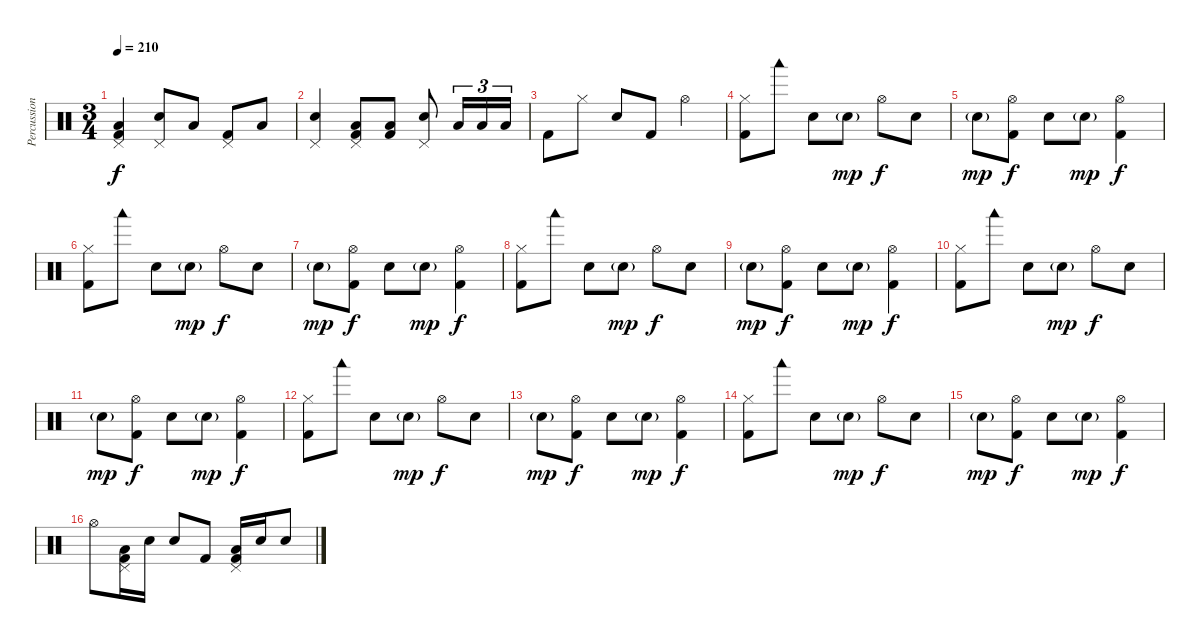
\track ("Percussion" "Percussion") {instrument percussion}
\staff
\articulation defaults
\ts (3 4)
\tempo 210
\clef neutral
\ks c
("Pedal Hi-Hat (hit)" "Low Floor Tom (hit)" "Kick (hit) 2").4{dy f} ("Pedal Hi-Hat (hit)" "Electric Snare (hit)").8 "Low Floor Tom (hit)".8 ("Pedal Hi-Hat (hit)" "Kick (hit) 2").8 "Low Floor Tom (hit)".8 |
("Pedal Hi-Hat (hit)" "Electric Snare (hit)").4 ("Pedal Hi-Hat (hit)" "Low Floor Tom (hit)" "Kick (hit) 2").8 ("Low Floor Tom (hit)" "Kick (hit) 2").8 ("Pedal Hi-Hat (hit)" "Electric Snare (hit)").8 "Low Floor Tom (hit)".16{tu (3 2)} "Low Floor Tom (hit)".16{tu (3 2)} "Low Floor Tom (hit)".16{tu (3 2)} |
"Kick (hit) 2".8 "Hi-Hat (closed)".8 "Electric Snare (hit)".8 "Kick (hit) 2".8 "Hi-Hat (open)".4 |
("Hi-Hat (closed)" "Kick (hit) 2").8 "Woodblock low (hit)".8 "Electric Snare (hit)".8 "Electric Snare (hit)"{g}.8{dy mp} "Hi-Hat (open)".8{dy f} "Electric Snare (hit)".8 |
"Electric Snare (hit)"{g}.8{dy mp} ("Hi-Hat (open)" "Kick (hit) 2").8{dy f} "Electric Snare (hit)".8 "Electric Snare (hit)"{g}.8{dy mp} ("Hi-Hat (open)" "Kick (hit) 2").4{dy f} |
("Hi-Hat (closed)" "Kick (hit) 2").8 "Woodblock low (hit)".8 "Electric Snare (hit)".8 "Electric Snare (hit)"{g}.8{dy mp} "Hi-Hat (open)".8{dy f} "Electric Snare (hit)".8 |
"Electric Snare (hit)"{g}.8{dy mp} ("Hi-Hat (open)" "Kick (hit) 2").8{dy f} "Electric Snare (hit)".8 "Electric Snare (hit)"{g}.8{dy mp} ("Hi-Hat (open)" "Kick (hit) 2").4{dy f} |
("Hi-Hat (closed)" "Kick (hit) 2").8 "Woodblock low (hit)".8 "Electric Snare (hit)".8 "Electric Snare (hit)"{g}.8{dy mp} "Hi-Hat (open)".8{dy f} "Electric Snare (hit)".8 |
"Electric Snare (hit)"{g}.8{dy mp} ("Hi-Hat (open)" "Kick (hit) 2").8{dy f} "Electric Snare (hit)".8 "Electric Snare (hit)"{g}.8{dy mp} ("Hi-Hat (open)" "Kick (hit) 2").4{dy f} |
("Hi-Hat (closed)" "Kick (hit) 2").8 "Woodblock low (hit)".8 "Electric Snare (hit)".8 "Electric Snare (hit)"{g}.8{dy mp} "Hi-Hat (open)".8{dy f} "Electric Snare (hit)".8 |
"Electric Snare (hit)"{g}.8{dy mp} ("Hi-Hat (open)" "Kick (hit) 2").8{dy f} "Electric Snare (hit)".8 "Electric Snare (hit)"{g}.8{dy mp} ("Hi-Hat (open)" "Kick (hit) 2").4{dy f} |
("Hi-Hat (closed)" "Kick (hit) 2").8 "Woodblock low (hit)".8 "Electric Snare (hit)".8 "Electric Snare (hit)"{g}.8{dy mp} "Hi-Hat (open)".8{dy f} "Electric Snare (hit)".8 |
"Electric Snare (hit)"{g}.8{dy mp} ("Hi-Hat (open)" "Kick (hit) 2").8{dy f} "Electric Snare (hit)".8 "Electric Snare (hit)"{g}.8{dy mp} ("Hi-Hat (open)" "Kick (hit) 2").4{dy f} |
("Hi-Hat (closed)" "Kick (hit) 2").8 "Woodblock low (hit)".8 "Electric Snare (hit)".8 "Electric Snare (hit)"{g}.8{dy mp} "Hi-Hat (open)".8{dy f} "Electric Snare (hit)".8 |
"Electric Snare (hit)"{g}.8{dy mp} ("Hi-Hat (open)" "Kick (hit) 2").8{dy f} "Electric Snare (hit)".8 "Electric Snare (hit)"{g}.8{dy mp} ("Hi-Hat (open)" "Kick (hit) 2").4{dy f} |
"Hi-Hat (open)".8 ("Pedal Hi-Hat (hit)" "Low Tom (hit)" "Kick (hit) 2").16 "Electric Snare (hit)".16 "Electric Snare (hit)".8 "Kick (hit) 2".8 ("Pedal Hi-Hat (hit)" "Low Floor Tom (hit)" "Kick (hit) 2").16 "Electric Snare (hit)".16 "Electric Snare (hit)".8
